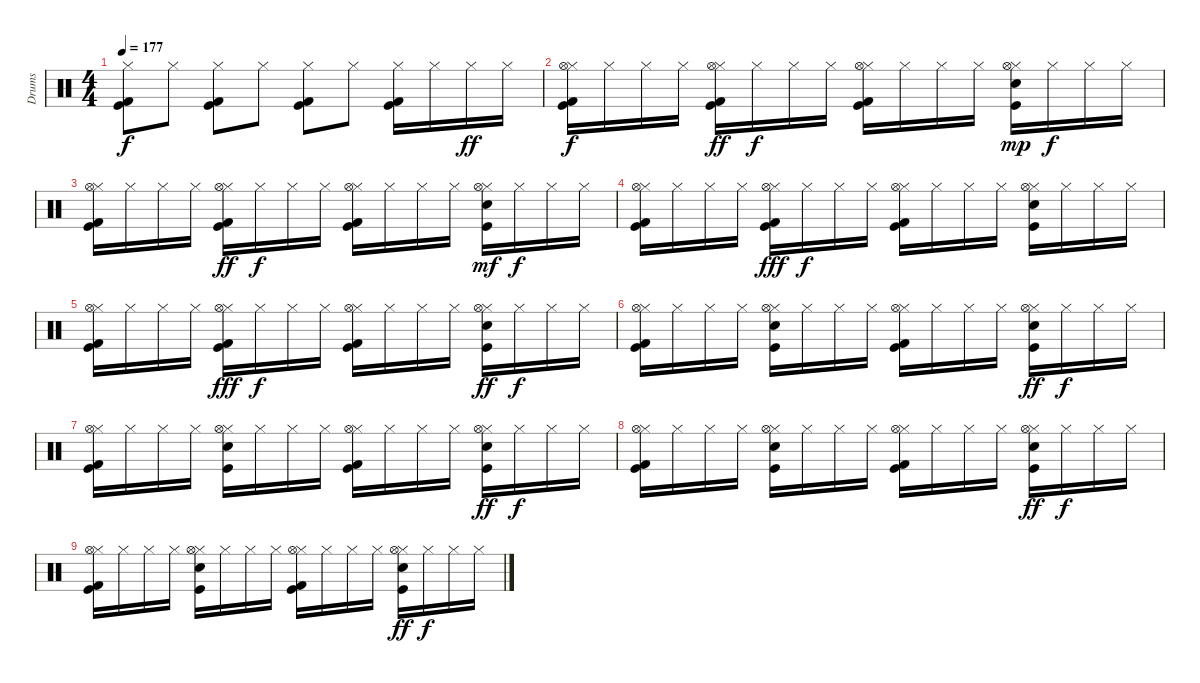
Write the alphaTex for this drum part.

\track ("Drums" "Drums") {instrument percussion}
\staff {score}
\articulation defaults
\ts (4 4)
\tempo 177
\clef neutral
\ks c
("Hi-Hat (closed)" "Kick (hit) 2" "Kick (hit)").8{dy f} "Hi-Hat (closed)".8 ("Hi-Hat (closed)" "Kick (hit) 2" "Kick (hit)").8 "Hi-Hat (closed)".8 ("Hi-Hat (closed)" "Kick (hit) 2" "Kick (hit)").8 "Hi-Hat (closed)".8 ("Hi-Hat (closed)" "Kick (hit) 2" "Kick (hit)").16 "Hi-Hat (closed)".16 "Hi-Hat (closed)".16{dy ff} "Hi-Hat (closed)".16 |
("Hi-Hat (closed)" "Hi-Hat (open)" "Kick (hit) 2" "Kick (hit)").16{dy f} "Hi-Hat (closed)".16 "Hi-Hat (closed)".16 "Hi-Hat (closed)".16 ("Hi-Hat (closed)" "Hi-Hat (open)" "Kick (hit) 2" "Kick (hit)").16{dy ff} "Hi-Hat (closed)".16{dy f} "Hi-Hat (closed)".16 "Hi-Hat (closed)".16 ("Hi-Hat (closed)" "Hi-Hat (open)" "Kick (hit) 2" "Kick (hit)").16 "Hi-Hat (closed)".16 "Hi-Hat (closed)".16 "Hi-Hat (closed)".16 ("Hi-Hat (closed)" "Hi-Hat (open)" "Snare (hit) 2" "Kick (hit)").16{dy mp} "Hi-Hat (closed)".16{dy f} "Hi-Hat (closed)".16 "Hi-Hat (closed)".16 |
("Hi-Hat (closed)" "Hi-Hat (open)" "Kick (hit) 2" "Kick (hit)").16 "Hi-Hat (closed)".16 "Hi-Hat (closed)".16 "Hi-Hat (closed)".16 ("Hi-Hat (closed)" "Hi-Hat (open)" "Kick (hit) 2" "Kick (hit)").16{dy ff} "Hi-Hat (closed)".16{dy f} "Hi-Hat (closed)".16 "Hi-Hat (closed)".16 ("Hi-Hat (closed)" "Hi-Hat (open)" "Kick (hit) 2" "Kick (hit)").16 "Hi-Hat (closed)".16 "Hi-Hat (closed)".16 "Hi-Hat (closed)".16 ("Hi-Hat (closed)" "Hi-Hat (open)" "Snare (hit) 2" "Kick (hit)").16{dy mf} "Hi-Hat (closed)".16{dy f} "Hi-Hat (closed)".16 "Hi-Hat (closed)".16 |
("Hi-Hat (closed)" "Hi-Hat (open)" "Kick (hit) 2" "Kick (hit)").16 "Hi-Hat (closed)".16 "Hi-Hat (closed)".16 "Hi-Hat (closed)".16 ("Hi-Hat (closed)" "Hi-Hat (open)" "Kick (hit) 2" "Kick (hit)").16{dy fff} "Hi-Hat (closed)".16{dy f} "Hi-Hat (closed)".16 "Hi-Hat (closed)".16 ("Hi-Hat (closed)" "Hi-Hat (open)" "Kick (hit) 2" "Kick (hit)").16 "Hi-Hat (closed)".16 "Hi-Hat (closed)".16 "Hi-Hat (closed)".16 ("Hi-Hat (closed)" "Hi-Hat (open)" "Snare (hit) 2" "Kick (hit)").16 "Hi-Hat (closed)".16 "Hi-Hat (closed)".16 "Hi-Hat (closed)".16 |
("Hi-Hat (closed)" "Hi-Hat (open)" "Kick (hit) 2" "Kick (hit)").16 "Hi-Hat (closed)".16 "Hi-Hat (closed)".16 "Hi-Hat (closed)".16 ("Hi-Hat (closed)" "Hi-Hat (open)" "Kick (hit) 2" "Kick (hit)").16{dy fff} "Hi-Hat (closed)".16{dy f} "Hi-Hat (closed)".16 "Hi-Hat (closed)".16 ("Hi-Hat (closed)" "Hi-Hat (open)" "Kick (hit) 2" "Kick (hit)").16 "Hi-Hat (closed)".16 "Hi-Hat (closed)".16 "Hi-Hat (closed)".16 ("Hi-Hat (closed)" "Hi-Hat (open)" "Snare (hit) 2" "Kick (hit)").16{dy ff} "Hi-Hat (closed)".16{dy f} "Hi-Hat (closed)".16 "Hi-Hat (closed)".16 |
("Hi-Hat (closed)" "Hi-Hat (open)" "Kick (hit) 2" "Kick (hit)").16 "Hi-Hat (closed)".16 "Hi-Hat (closed)".16 "Hi-Hat (closed)".16 ("Hi-Hat (closed)" "Hi-Hat (open)" "Snare (hit) 2" "Kick (hit)").16 "Hi-Hat (closed)".16 "Hi-Hat (closed)".16 "Hi-Hat (closed)".16 ("Hi-Hat (closed)" "Hi-Hat (open)" "Kick (hit) 2" "Kick (hit)").16 "Hi-Hat (closed)".16 "Hi-Hat (closed)".16 "Hi-Hat (closed)".16 ("Hi-Hat (closed)" "Hi-Hat (open)" "Snare (hit) 2" "Kick (hit)").16{dy ff} "Hi-Hat (closed)".16{dy f} "Hi-Hat (closed)".16 "Hi-Hat (closed)".16 |
("Hi-Hat (closed)" "Hi-Hat (open)" "Kick (hit) 2" "Kick (hit)").16 "Hi-Hat (closed)".16 "Hi-Hat (closed)".16 "Hi-Hat (closed)".16 ("Hi-Hat (closed)" "Hi-Hat (open)" "Snare (hit) 2" "Kick (hit)").16 "Hi-Hat (closed)".16 "Hi-Hat (closed)".16 "Hi-Hat (closed)".16 ("Hi-Hat (closed)" "Hi-Hat (open)" "Kick (hit) 2" "Kick (hit)").16 "Hi-Hat (closed)".16 "Hi-Hat (closed)".16 "Hi-Hat (closed)".16 ("Hi-Hat (closed)" "Hi-Hat (open)" "Snare (hit) 2" "Kick (hit)").16{dy ff} "Hi-Hat (closed)".16{dy f} "Hi-Hat (closed)".16 "Hi-Hat (closed)".16 |
("Hi-Hat (closed)" "Hi-Hat (open)" "Kick (hit) 2" "Kick (hit)").16 "Hi-Hat (closed)".16 "Hi-Hat (closed)".16 "Hi-Hat (closed)".16 ("Hi-Hat (closed)" "Hi-Hat (open)" "Snare (hit) 2" "Kick (hit)").16 "Hi-Hat (closed)".16 "Hi-Hat (closed)".16 "Hi-Hat (closed)".16 ("Hi-Hat (closed)" "Hi-Hat (open)" "Kick (hit) 2" "Kick (hit)").16 "Hi-Hat (closed)".16 "Hi-Hat (closed)".16 "Hi-Hat (closed)".16 ("Hi-Hat (closed)" "Hi-Hat (open)" "Snare (hit) 2" "Kick (hit)").16{dy ff} "Hi-Hat (closed)".16{dy f} "Hi-Hat (closed)".16 "Hi-Hat (closed)".16 |
("Hi-Hat (closed)" "Hi-Hat (open)" "Kick (hit) 2" "Kick (hit)").16 "Hi-Hat (closed)".16 "Hi-Hat (closed)".16 "Hi-Hat (closed)".16 ("Hi-Hat (closed)" "Hi-Hat (open)" "Snare (hit) 2" "Kick (hit)").16 "Hi-Hat (closed)".16 "Hi-Hat (closed)".16 "Hi-Hat (closed)".16 ("Hi-Hat (closed)" "Hi-Hat (open)" "Kick (hit) 2" "Kick (hit)").16 "Hi-Hat (closed)".16 "Hi-Hat (closed)".16 "Hi-Hat (closed)".16 ("Hi-Hat (closed)" "Hi-Hat (open)" "Snare (hit) 2" "Kick (hit)").16{dy ff} "Hi-Hat (closed)".16{dy f} "Hi-Hat (closed)".16 "Hi-Hat (closed)".16
